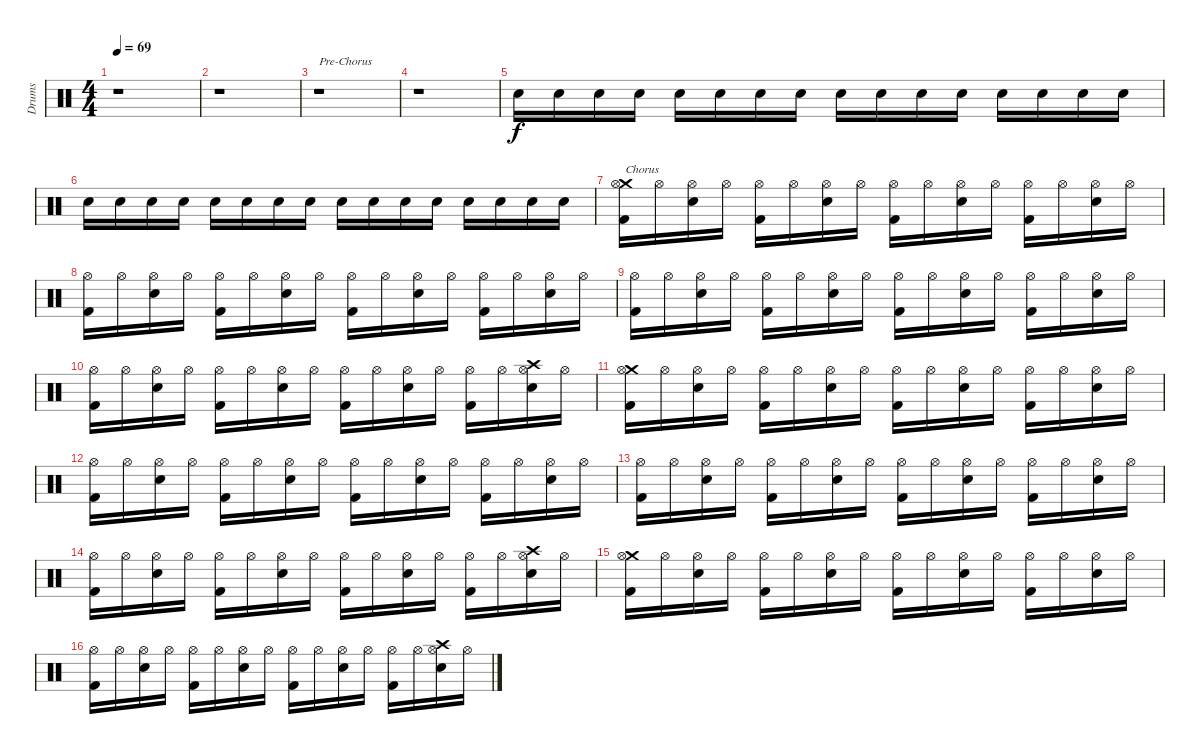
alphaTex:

\track ("Drums" "Drums") {instrument percussion}
\staff {score}
\articulation defaults
\ts (4 4)
\tempo 69
\clef neutral
\ks c
r.1{dy f} |
r.1 |
r.1{txt "Pre-Chorus"} |
r.1 |
"Snare (hit) 2".16{volume 0} "Snare (hit) 2".16{volume 16} "Snare (hit) 2".16 "Snare (hit) 2".16 "Snare (hit) 2".16 "Snare (hit) 2".16 "Snare (hit) 2".16 "Snare (hit) 2".16 "Snare (hit) 2".16 "Snare (hit) 2".16 "Snare (hit) 2".16 "Snare (hit) 2".16 "Snare (hit) 2".16 "Snare (hit) 2".16 "Snare (hit) 2".16 "Snare (hit) 2".16 |
"Snare (hit) 2".16 "Snare (hit) 2".16 "Snare (hit) 2".16 "Snare (hit) 2".16 "Snare (hit) 2".16 "Snare (hit) 2".16 "Snare (hit) 2".16 "Snare (hit) 2".16 "Snare (hit) 2".16 "Snare (hit) 2".16 "Snare (hit) 2".16 "Snare (hit) 2".16 "Snare (hit) 2".16 "Snare (hit) 2".16 "Snare (hit) 2".16 "Snare (hit) 2".16 |
("Crash medium (hit)" "Hi-Hat (open)" "Kick (hit) 2").16{txt "Chorus"} "Hi-Hat (open)".16 ("Hi-Hat (open)" "Snare (hit) 2").16 "Hi-Hat (open)".16 ("Hi-Hat (open)" "Kick (hit) 2").16 "Hi-Hat (open)".16 ("Hi-Hat (open)" "Snare (hit) 2").16 "Hi-Hat (open)".16 ("Hi-Hat (open)" "Kick (hit) 2").16 "Hi-Hat (open)".16 ("Hi-Hat (open)" "Snare (hit) 2").16 "Hi-Hat (open)".16 ("Hi-Hat (open)" "Kick (hit) 2").16 "Hi-Hat (open)".16 ("Hi-Hat (open)" "Snare (hit) 2").16 "Hi-Hat (open)".16 |
("Hi-Hat (open)" "Kick (hit) 2").16 "Hi-Hat (open)".16 ("Hi-Hat (open)" "Snare (hit) 2").16 "Hi-Hat (open)".16 ("Hi-Hat (open)" "Kick (hit) 2").16 "Hi-Hat (open)".16 ("Hi-Hat (open)" "Snare (hit) 2").16 "Hi-Hat (open)".16 ("Hi-Hat (open)" "Kick (hit) 2").16 "Hi-Hat (open)".16 ("Hi-Hat (open)" "Snare (hit) 2").16 "Hi-Hat (open)".16 ("Hi-Hat (open)" "Kick (hit) 2").16 "Hi-Hat (open)".16 ("Hi-Hat (open)" "Snare (hit) 2").16 "Hi-Hat (open)".16 |
("Hi-Hat (open)" "Kick (hit) 2").16 "Hi-Hat (open)".16 ("Hi-Hat (open)" "Snare (hit) 2").16 "Hi-Hat (open)".16 ("Hi-Hat (open)" "Kick (hit) 2").16 "Hi-Hat (open)".16 ("Hi-Hat (open)" "Snare (hit) 2").16 "Hi-Hat (open)".16 ("Hi-Hat (open)" "Kick (hit) 2").16 "Hi-Hat (open)".16 ("Hi-Hat (open)" "Snare (hit) 2").16 "Hi-Hat (open)".16 ("Hi-Hat (open)" "Kick (hit) 2").16 "Hi-Hat (open)".16 ("Hi-Hat (open)" "Snare (hit) 2").16 "Hi-Hat (open)".16 |
("Hi-Hat (open)" "Kick (hit) 2").16 "Hi-Hat (open)".16 ("Hi-Hat (open)" "Snare (hit) 2").16 "Hi-Hat (open)".16 ("Hi-Hat (open)" "Kick (hit) 2").16 "Hi-Hat (open)".16 ("Hi-Hat (open)" "Snare (hit) 2").16 "Hi-Hat (open)".16 ("Hi-Hat (open)" "Kick (hit) 2").16 "Hi-Hat (open)".16 ("Hi-Hat (open)" "Snare (hit) 2").16 "Hi-Hat (open)".16 ("Hi-Hat (open)" "Kick (hit) 2").16 "Hi-Hat (open)".16 ("Crash high (hit)" "Hi-Hat (open)" "Snare (hit) 2").16 "Hi-Hat (open)".16 |
("Crash medium (hit)" "Hi-Hat (open)" "Kick (hit) 2").16 "Hi-Hat (open)".16 ("Hi-Hat (open)" "Snare (hit) 2").16 "Hi-Hat (open)".16 ("Hi-Hat (open)" "Kick (hit) 2").16 "Hi-Hat (open)".16 ("Hi-Hat (open)" "Snare (hit) 2").16 "Hi-Hat (open)".16 ("Hi-Hat (open)" "Kick (hit) 2").16 "Hi-Hat (open)".16 ("Hi-Hat (open)" "Snare (hit) 2").16 "Hi-Hat (open)".16 ("Hi-Hat (open)" "Kick (hit) 2").16 "Hi-Hat (open)".16 ("Hi-Hat (open)" "Snare (hit) 2").16 "Hi-Hat (open)".16 |
("Hi-Hat (open)" "Kick (hit) 2").16 "Hi-Hat (open)".16 ("Hi-Hat (open)" "Snare (hit) 2").16 "Hi-Hat (open)".16 ("Hi-Hat (open)" "Kick (hit) 2").16 "Hi-Hat (open)".16 ("Hi-Hat (open)" "Snare (hit) 2").16 "Hi-Hat (open)".16 ("Hi-Hat (open)" "Kick (hit) 2").16 "Hi-Hat (open)".16 ("Hi-Hat (open)" "Snare (hit) 2").16 "Hi-Hat (open)".16 ("Hi-Hat (open)" "Kick (hit) 2").16 "Hi-Hat (open)".16 ("Hi-Hat (open)" "Snare (hit) 2").16 "Hi-Hat (open)".16 |
("Hi-Hat (open)" "Kick (hit) 2").16 "Hi-Hat (open)".16 ("Hi-Hat (open)" "Snare (hit) 2").16 "Hi-Hat (open)".16 ("Hi-Hat (open)" "Kick (hit) 2").16 "Hi-Hat (open)".16 ("Hi-Hat (open)" "Snare (hit) 2").16 "Hi-Hat (open)".16 ("Hi-Hat (open)" "Kick (hit) 2").16 "Hi-Hat (open)".16 ("Hi-Hat (open)" "Snare (hit) 2").16 "Hi-Hat (open)".16 ("Hi-Hat (open)" "Kick (hit) 2").16 "Hi-Hat (open)".16 ("Hi-Hat (open)" "Snare (hit) 2").16 "Hi-Hat (open)".16 |
("Hi-Hat (open)" "Kick (hit) 2").16 "Hi-Hat (open)".16 ("Hi-Hat (open)" "Snare (hit) 2").16 "Hi-Hat (open)".16 ("Hi-Hat (open)" "Kick (hit) 2").16 "Hi-Hat (open)".16 ("Hi-Hat (open)" "Snare (hit) 2").16 "Hi-Hat (open)".16 ("Hi-Hat (open)" "Kick (hit) 2").16 "Hi-Hat (open)".16 ("Hi-Hat (open)" "Snare (hit) 2").16 "Hi-Hat (open)".16 ("Hi-Hat (open)" "Kick (hit) 2").16 "Hi-Hat (open)".16 ("Crash high (hit)" "Hi-Hat (open)" "Snare (hit) 2").16 "Hi-Hat (open)".16 |
("Crash medium (hit)" "Hi-Hat (open)" "Kick (hit) 2").16 "Hi-Hat (open)".16 ("Hi-Hat (open)" "Snare (hit) 2").16 "Hi-Hat (open)".16 ("Hi-Hat (open)" "Kick (hit) 2").16 "Hi-Hat (open)".16 ("Hi-Hat (open)" "Snare (hit) 2").16 "Hi-Hat (open)".16 ("Hi-Hat (open)" "Kick (hit) 2").16 "Hi-Hat (open)".16 ("Hi-Hat (open)" "Snare (hit) 2").16 "Hi-Hat (open)".16 ("Hi-Hat (open)" "Kick (hit) 2").16 "Hi-Hat (open)".16 ("Hi-Hat (open)" "Snare (hit) 2").16 "Hi-Hat (open)".16 |
("Hi-Hat (open)" "Kick (hit) 2").16 "Hi-Hat (open)".16 ("Hi-Hat (open)" "Snare (hit) 2").16 "Hi-Hat (open)".16 ("Hi-Hat (open)" "Kick (hit) 2").16 "Hi-Hat (open)".16 ("Hi-Hat (open)" "Snare (hit) 2").16 "Hi-Hat (open)".16 ("Hi-Hat (open)" "Kick (hit) 2").16 "Hi-Hat (open)".16 ("Hi-Hat (open)" "Snare (hit) 2").16 "Hi-Hat (open)".16 ("Hi-Hat (open)" "Kick (hit) 2").16 "Hi-Hat (open)".16 ("Crash high (hit)" "Hi-Hat (open)" "Snare (hit) 2").16 "Hi-Hat (open)".16
